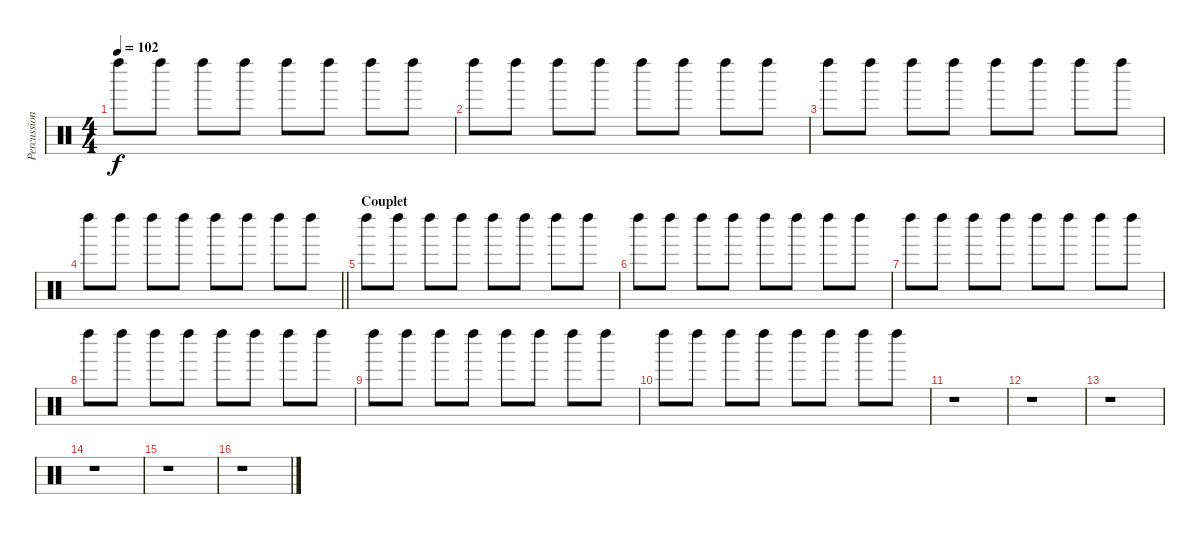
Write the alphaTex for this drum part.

\track ("Percussions" "Percussion") {instrument percussion}
\staff {score}
\articulation defaults
\ts (4 4)
\tempo 102
\clef neutral
\ks c "Left Maraca (hit)".8{dy f} "Left Maraca (hit)".8 "Left Maraca (hit)".8 "Left Maraca (hit)".8 "Left Maraca (hit)".8 "Left Maraca (hit)".8 "Left Maraca (hit)".8 "Left Maraca (hit)".8
|
"Left Maraca (hit)".8 "Left Maraca (hit)".8 "Left Maraca (hit)".8 "Left Maraca (hit)".8 "Left Maraca (hit)".8 "Left Maraca (hit)".8 "Left Maraca (hit)".8 "Left Maraca (hit)".8 |
"Left Maraca (hit)".8 "Left Maraca (hit)".8 "Left Maraca (hit)".8 "Left Maraca (hit)".8 "Left Maraca (hit)".8 "Left Maraca (hit)".8 "Left Maraca (hit)".8 "Left Maraca (hit)".8 |
\barLineRight lightlight "Left Maraca (hit)".8 "Left Maraca (hit)".8 "Left Maraca (hit)".8 "Left Maraca (hit)".8 "Left Maraca (hit)".8 "Left Maraca (hit)".8 "Left Maraca (hit)".8 "Left Maraca (hit)".8
|
\section ("" "Couplet")
"Left Maraca (hit)".8 "Left Maraca (hit)".8 "Left Maraca (hit)".8 "Left Maraca (hit)".8 "Left Maraca (hit)".8 "Left Maraca (hit)".8 "Left Maraca (hit)".8 "Left Maraca (hit)".8 |
"Left Maraca (hit)".8 "Left Maraca (hit)".8 "Left Maraca (hit)".8 "Left Maraca (hit)".8 "Left Maraca (hit)".8 "Left Maraca (hit)".8 "Left Maraca (hit)".8 "Left Maraca (hit)".8 |
"Left Maraca (hit)".8 "Left Maraca (hit)".8 "Left Maraca (hit)".8 "Left Maraca (hit)".8 "Left Maraca (hit)".8 "Left Maraca (hit)".8 "Left Maraca (hit)".8 "Left Maraca (hit)".8 |
"Left Maraca (hit)".8 "Left Maraca (hit)".8 "Left Maraca (hit)".8 "Left Maraca (hit)".8 "Left Maraca (hit)".8 "Left Maraca (hit)".8 "Left Maraca (hit)".8 "Left Maraca (hit)".8 |
"Left Maraca (hit)".8 "Left Maraca (hit)".8 "Left Maraca (hit)".8 "Left Maraca (hit)".8 "Left Maraca (hit)".8 "Left Maraca (hit)".8 "Left Maraca (hit)".8 "Left Maraca (hit)".8 |
"Left Maraca (hit)".8 "Left Maraca (hit)".8 "Left Maraca (hit)".8 "Left Maraca (hit)".8 "Left Maraca (hit)".8 "Left Maraca (hit)".8 "Left Maraca (hit)".8 "Left Maraca (hit)".8 |
r.1 |
r.1 |
r.1 |
r.1 |
r.1 |
r.1
